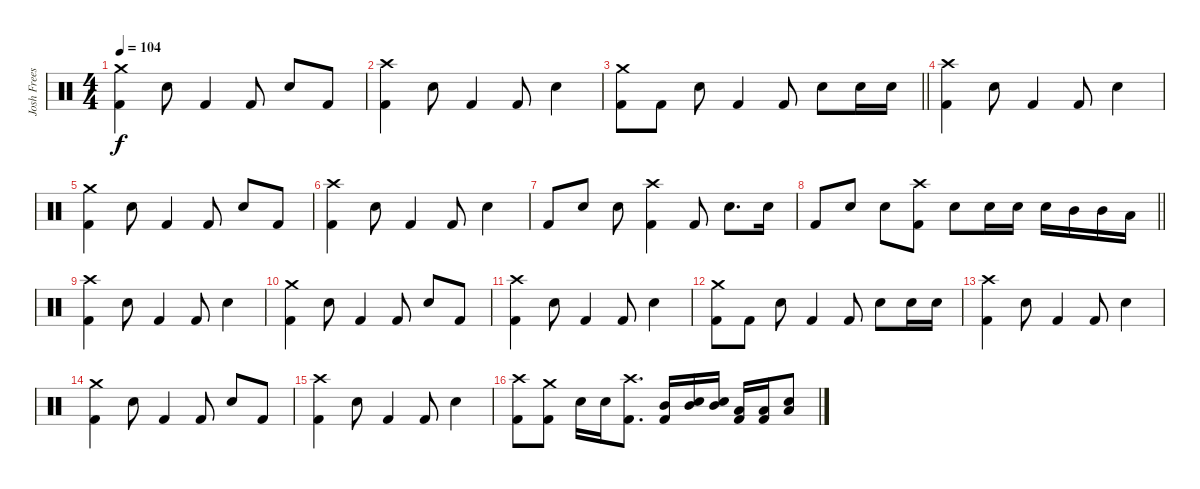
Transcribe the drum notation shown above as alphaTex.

\track ("Josh Freese (Studio Drummer)" "Josh Frees") {instrument percussion}
\staff {score}
\articulation defaults
\ts (4 4)
\tempo 104
\clef neutral
\ks c
("Crash medium (hit)" "Kick (hit) 2").4{dy f} "Electric Snare (hit)".8 "Kick (hit) 2".4 "Kick (hit) 2".8 "Electric Snare (hit)".8 "Kick (hit) 2".8 |
("Crash high (hit)" "Kick (hit) 2").4 "Electric Snare (hit)".8 "Kick (hit) 2".4 "Kick (hit) 2".8 "Electric Snare (hit)".4 |
\barLineRight lightlight
("Crash medium (hit)" "Kick (hit) 2").8 "Kick (hit) 2".8 "Electric Snare (hit)".8 "Kick (hit) 2".4 "Kick (hit) 2".8 "Electric Snare (hit)".8 "Electric Snare (hit)".16 "Electric Snare (hit)".16 |
("Crash high (hit)" "Kick (hit) 2").4 "Electric Snare (hit)".8 "Kick (hit) 2".4 "Kick (hit) 2".8 "Electric Snare (hit)".4 |
("Crash medium (hit)" "Kick (hit) 2").4 "Electric Snare (hit)".8 "Kick (hit) 2".4 "Kick (hit) 2".8 "Electric Snare (hit)".8 "Kick (hit) 2".8 |
("Crash high (hit)" "Kick (hit) 2").4 "Electric Snare (hit)".8 "Kick (hit) 2".4 "Kick (hit) 2".8 "Electric Snare (hit)".4 |
"Kick (hit) 2".8 "Electric Snare (hit)".8 "Electric Snare (hit)".8 ("Crash high (hit)" "Kick (hit) 2").4 "Kick (hit) 2".8 "Electric Snare (hit)".8{d} "Electric Snare (hit)".16 |
\barLineRight lightlight "Kick (hit) 2".8 "Electric Snare (hit)".8 "Electric Snare (hit)".8
("Crash high (hit)" "Kick (hit) 2").8 "Electric Snare (hit)".8 "Electric Snare (hit)".16 "Electric Snare (hit)".16 "Electric Snare (hit)".16 "Mid Tom (hit)".16 "Mid Tom (hit)".16 "Low Tom (hit)".16 |
("Crash high (hit)" "Kick (hit) 2").4 "Electric Snare (hit)".8 "Kick (hit) 2".4 "Kick (hit) 2".8 "Electric Snare (hit)".4 |
("Crash medium (hit)" "Kick (hit) 2").4 "Electric Snare (hit)".8 "Kick (hit) 2".4 "Kick (hit) 2".8 "Electric Snare (hit)".8 "Kick (hit) 2".8 |
("Crash high (hit)" "Kick (hit) 2").4 "Electric Snare (hit)".8 "Kick (hit) 2".4 "Kick (hit) 2".8 "Electric Snare (hit)".4 |
("Crash medium (hit)" "Kick (hit) 2").8 "Kick (hit) 2".8 "Electric Snare (hit)".8 "Kick (hit) 2".4 "Kick (hit) 2".8 "Electric Snare (hit)".8 "Electric Snare (hit)".16 "Electric Snare (hit)".16 |
("Crash high (hit)" "Kick (hit) 2").4 "Electric Snare (hit)".8 "Kick (hit) 2".4 "Kick (hit) 2".8 "Electric Snare (hit)".4 |
("Crash medium (hit)" "Kick (hit) 2").4 "Electric Snare (hit)".8 "Kick (hit) 2".4 "Kick (hit) 2".8 "Electric Snare (hit)".8 "Kick (hit) 2".8 |
("Crash high (hit)" "Kick (hit) 2").4 "Electric Snare (hit)".8 "Kick (hit) 2".4 "Kick (hit) 2".8 "Electric Snare (hit)".4 |
("Crash high (hit)" "Kick (hit) 2").8 ("Kick (hit) 2" "Crash medium (hit)").8 "Electric Snare (hit)".16 "Electric Snare (hit)".16 ("Crash high (hit)" "Kick (hit) 2").8{d} ("Kick (hit) 2" "Mid Tom (hit)").16 ("Electric Snare (hit)" "Mid Tom (hit)").16 ("Electric Snare (hit)" "Mid Tom (hit)").16 ("Kick (hit) 2" "Low Tom (hit)").16 ("Kick (hit) 2" "Low Tom (hit)").16 ("Electric Snare (hit)" "Low Tom (hit)").8
